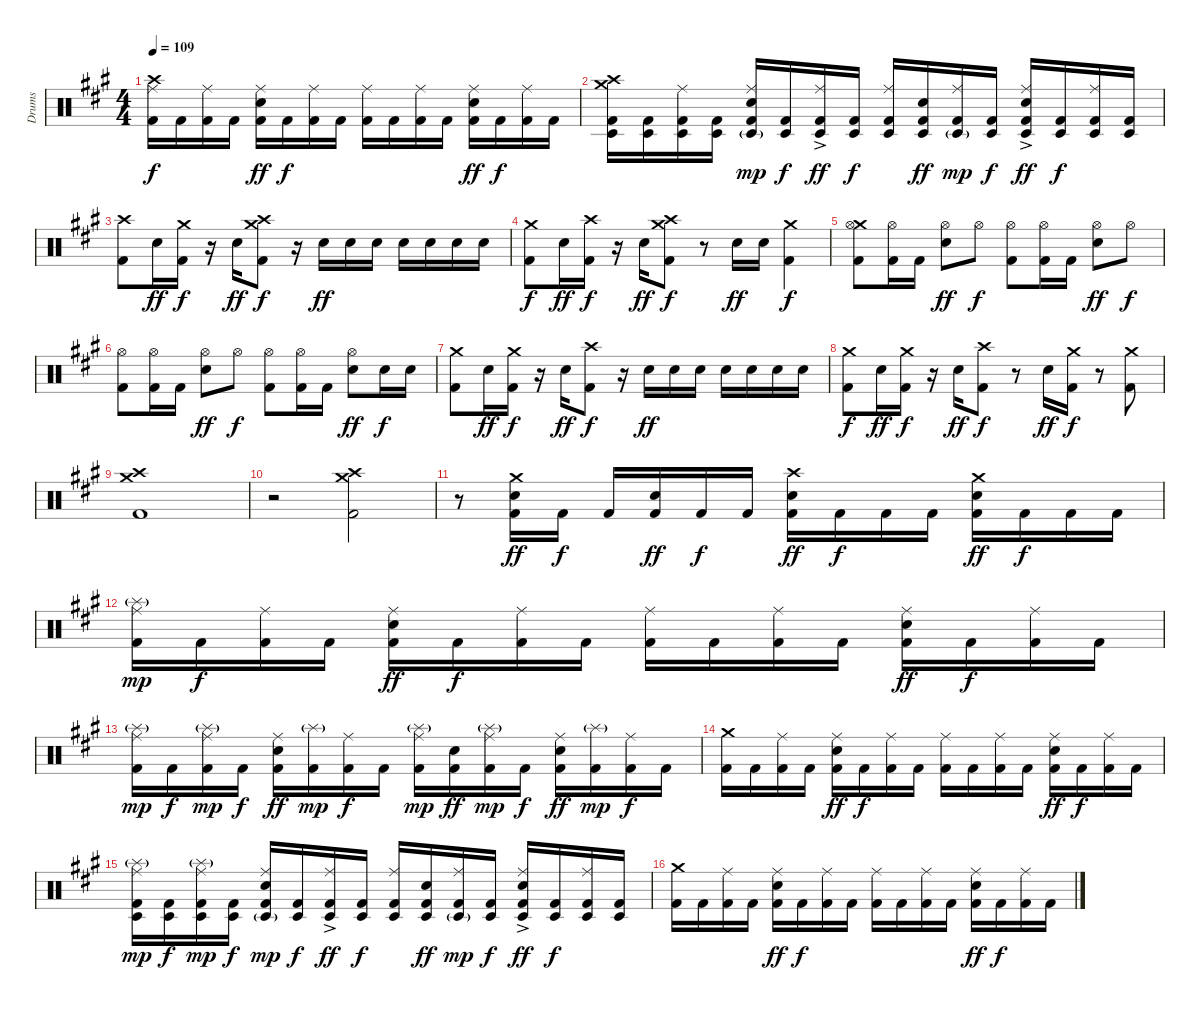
\track ("Drums" "Drums") {instrument percussion}
\staff {score}
\articulation defaults
\ts (4 4)
\tempo 109
\clef neutral
\ks f#minor
("Ride (middle)" "Crash high (hit)" "Kick (hit) 2").16{dy f} "Kick (hit) 2".16 ("Ride (middle)" "Kick (hit) 2").16 "Kick (hit) 2".16 ("Ride (middle)" "Electric Snare (hit)" "Kick (hit) 2").16{dy ff} "Kick (hit) 2".16{dy f} ("Ride (middle)" "Kick (hit) 2").16 "Kick (hit) 2".16 ("Ride (middle)" "Kick (hit) 2").16 "Kick (hit) 2".16 ("Ride (middle)" "Kick (hit) 2").16 "Kick (hit) 2".16 ("Ride (middle)" "Electric Snare (hit)" "Kick (hit) 2").16{dy ff} "Kick (hit) 2".16{dy f} ("Ride (middle)" "Kick (hit) 2").16 "Kick (hit) 2".16 |
("Crash medium (hit)" "Crash high (hit)" "Timbale low (hit)" "Kick (hit) 2").16 ("Timbale low (hit)" "Kick (hit) 2").16 ("Ride (middle)" "Timbale low (hit)" "Kick (hit) 2").16 ("Timbale low (hit)" "Kick (hit) 2").16 ("Ride (middle)" "Electric Snare (hit)" "Timbale low (hit)"{g} "Kick (hit) 2").16{dy mp} ("Timbale low (hit)" "Kick (hit) 2").16{dy f} ("Ride (middle)" "Timbale low (hit)"{ac} "Kick (hit) 2").16{dy ff} ("Timbale low (hit)" "Kick (hit) 2").16{dy f} ("Ride (middle)" "Timbale low (hit)" "Kick (hit) 2").16 ("Electric Snare (hit)" "Timbale low (hit)" "Kick (hit) 2").16{dy ff} ("Ride (middle)" "Timbale low (hit)"{g} "Kick (hit) 2").16{dy mp} ("Timbale low (hit)" "Kick (hit) 2").16{dy f} ("Ride (middle)" "Electric Snare (hit)" "Timbale low (hit)"{ac} "Kick (hit) 2").16{dy ff} ("Timbale low (hit)" "Kick (hit) 2").16{dy f} ("Ride (middle)" "Timbale low (hit)" "Kick (hit) 2").16 ("Timbale low (hit)" "Kick (hit) 2").16 |
("Crash high (hit)" "Kick (hit) 2").8 "Electric Snare (hit)".16{dy ff} ("Crash medium (hit)" "Kick (hit) 2").16{dy f} r.16 "Electric Snare (hit)".16{dy ff} ("Crash medium (hit)" "Crash high (hit)" "Kick (hit) 2").8{dy f} r.16 "Electric Snare (hit)".16{dy ff} "Electric Snare (hit)".16 "Electric Snare (hit)".16 "Electric Snare (hit)".16 "Electric Snare (hit)".16 "Electric Snare (hit)".16 "Electric Snare (hit)".16 |
("Crash medium (hit)" "Kick (hit) 2").8{dy f} "Electric Snare (hit)".16{dy ff} ("Crash high (hit)" "Kick (hit) 2").16{dy f} r.16 "Electric Snare (hit)".16{dy ff} ("Crash medium (hit)" "Crash high (hit)" "Kick (hit) 2").8{dy f} r.8 "Electric Snare (hit)".16{dy ff} "Electric Snare (hit)".16 ("Crash medium (hit)" "Kick (hit) 2").4{dy f} |
("Crash medium (hit)" "Hi-Hat (open)" "Kick (hit) 2").8 ("Hi-Hat (open)" "Kick (hit) 2").16 "Kick (hit) 2".16 ("Hi-Hat (open)" "Electric Snare (hit)").8{dy ff} "Hi-Hat (open)".8{dy f} ("Hi-Hat (open)" "Kick (hit) 2").8 ("Hi-Hat (open)" "Kick (hit) 2").16 "Kick (hit) 2".16 ("Hi-Hat (open)" "Electric Snare (hit)").8{dy ff} "Hi-Hat (open)".8{dy f} |
("Hi-Hat (open)" "Kick (hit) 2").8 ("Hi-Hat (open)" "Kick (hit) 2").16 "Kick (hit) 2".16 ("Hi-Hat (open)" "Electric Snare (hit)").8{dy ff} "Hi-Hat (open)".8{dy f} ("Hi-Hat (open)" "Kick (hit) 2").8 ("Hi-Hat (open)" "Kick (hit) 2").16 "Kick (hit) 2".16 ("Hi-Hat (open)" "Electric Snare (hit)").8{dy ff} "Electric Snare (hit)".16{dy f} "Electric Snare (hit)".16 |
("Crash medium (hit)" "Kick (hit) 2").8 "Electric Snare (hit)".16{dy ff} ("Crash medium (hit)" "Kick (hit) 2").16{dy f} r.16 "Electric Snare (hit)".16{dy ff} ("Crash high (hit)" "Kick (hit) 2").8{dy f} r.16 "Electric Snare (hit)".16{dy ff} "Electric Snare (hit)".16 "Electric Snare (hit)".16 "Electric Snare (hit)".16 "Electric Snare (hit)".16 "Electric Snare (hit)".16 "Electric Snare (hit)".16 |
("Crash medium (hit)" "Kick (hit) 2").8{dy f} "Electric Snare (hit)".16{dy ff} ("Crash medium (hit)" "Kick (hit) 2").16{dy f} r.16 "Electric Snare (hit)".16{dy ff} ("Crash high (hit)" "Kick (hit) 2").8{dy f} r.8 "Electric Snare (hit)".16{dy ff} ("Crash medium (hit)" "Kick (hit) 2").16{dy f} r.8 ("Crash medium (hit)" "Kick (hit) 2").8 |
("Crash medium (hit)" "Crash high (hit)" "Kick (hit) 2").1 |
r.2 ("Crash medium (hit)" "Crash high (hit)" "Kick (hit) 2").2 |
r.8 ("Crash medium (hit)" "Electric Snare (hit)" "Kick (hit) 2").16{dy ff} "Kick (hit) 2".16{dy f} "Kick (hit) 2".16 ("Electric Snare (hit)" "Kick (hit) 2").16{dy ff} "Kick (hit) 2".16{dy f} "Kick (hit) 2".16 ("Crash high (hit)" "Electric Snare (hit)" "Kick (hit) 2").16{dy ff} "Kick (hit) 2".16{dy f} "Kick (hit) 2".16 "Kick (hit) 2".16 ("Crash medium (hit)" "Electric Snare (hit)" "Kick (hit) 2").16{dy ff} "Kick (hit) 2".16{dy f} "Kick (hit) 2".16 "Kick (hit) 2".16 |
("Ride (middle)" "Splash (hit)"{g} "Kick (hit) 2").16{dy mp} "Kick (hit) 2".16{dy f} ("Ride (middle)" "Kick (hit) 2").16 "Kick (hit) 2".16 ("Ride (middle)" "Electric Snare (hit)" "Kick (hit) 2").16{dy ff} "Kick (hit) 2".16{dy f} ("Ride (middle)" "Kick (hit) 2").16 "Kick (hit) 2".16 ("Ride (middle)" "Kick (hit) 2").16 "Kick (hit) 2".16 ("Ride (middle)" "Kick (hit) 2").16 "Kick (hit) 2".16 ("Ride (middle)" "Electric Snare (hit)" "Kick (hit) 2").16{dy ff} "Kick (hit) 2".16{dy f} ("Ride (middle)" "Kick (hit) 2").16 "Kick (hit) 2".16 |
("Ride (middle)" "Splash (hit)"{g} "Kick (hit) 2").16{dy mp} "Kick (hit) 2".16{dy f} ("Ride (middle)" "Splash (hit)"{g} "Kick (hit) 2").16{dy mp} "Kick (hit) 2".16{dy f} ("Ride (middle)" "Electric Snare (hit)" "Kick (hit) 2").16{dy ff} ("Splash (hit)"{g} "Kick (hit) 2").16{dy mp} ("Ride (middle)" "Kick (hit) 2").16{dy f} "Kick (hit) 2".16 ("Ride (middle)" "Splash (hit)"{g} "Kick (hit) 2").16{dy mp} ("Electric Snare (hit)" "Kick (hit) 2").16{dy ff} ("Ride (middle)" "Splash (hit)"{g} "Kick (hit) 2").16{dy mp} "Kick (hit) 2".16{dy f} ("Ride (middle)" "Electric Snare (hit)" "Kick (hit) 2").16{dy ff} ("Splash (hit)"{g} "Kick (hit) 2").16{dy mp} ("Ride (middle)" "Kick (hit) 2").16{dy f} "Kick (hit) 2".16 |
("Crash medium (hit)" "Kick (hit) 2").16 "Kick (hit) 2".16 ("Ride (middle)" "Kick (hit) 2").16 "Kick (hit) 2".16 ("Ride (middle)" "Electric Snare (hit)" "Kick (hit) 2").16{dy ff} "Kick (hit) 2".16{dy f} ("Ride (middle)" "Kick (hit) 2").16 "Kick (hit) 2".16 ("Ride (middle)" "Kick (hit) 2").16 "Kick (hit) 2".16 ("Ride (middle)" "Kick (hit) 2").16 "Kick (hit) 2".16 ("Ride (middle)" "Electric Snare (hit)" "Kick (hit) 2").16{dy ff} "Kick (hit) 2".16{dy f} ("Ride (middle)" "Kick (hit) 2").16 "Kick (hit) 2".16 |
("Ride (middle)" "Splash (hit)"{g} "Timbale low (hit)" "Kick (hit) 2").16{dy mp} ("Timbale low (hit)" "Kick (hit) 2").16{dy f} ("Ride (middle)" "Splash (hit)"{g} "Timbale low (hit)" "Kick (hit) 2").16{dy mp} ("Timbale low (hit)" "Kick (hit) 2").16{dy f} ("Ride (middle)" "Electric Snare (hit)" "Timbale low (hit)"{g} "Kick (hit) 2").16{dy mp} ("Timbale low (hit)" "Kick (hit) 2").16{dy f} ("Ride (middle)" "Timbale low (hit)"{ac} "Kick (hit) 2").16{dy ff} ("Timbale low (hit)" "Kick (hit) 2").16{dy f} ("Ride (middle)" "Timbale low (hit)" "Kick (hit) 2").16 ("Electric Snare (hit)" "Timbale low (hit)" "Kick (hit) 2").16{dy ff} ("Ride (middle)" "Timbale low (hit)"{g} "Kick (hit) 2").16{dy mp} ("Timbale low (hit)" "Kick (hit) 2").16{dy f} ("Ride (middle)" "Electric Snare (hit)" "Timbale low (hit)"{ac} "Kick (hit) 2").16{dy ff} ("Timbale low (hit)" "Kick (hit) 2").16{dy f} ("Ride (middle)" "Timbale low (hit)" "Kick (hit) 2").16 ("Timbale low (hit)" "Kick (hit) 2").16 |
("Crash medium (hit)" "Kick (hit) 2").16 "Kick (hit) 2".16 ("Ride (middle)" "Kick (hit) 2").16 "Kick (hit) 2".16 ("Ride (middle)" "Electric Snare (hit)" "Kick (hit) 2").16{dy ff} "Kick (hit) 2".16{dy f} ("Ride (middle)" "Kick (hit) 2").16 "Kick (hit) 2".16 ("Ride (middle)" "Kick (hit) 2").16 "Kick (hit) 2".16 ("Ride (middle)" "Kick (hit) 2").16 "Kick (hit) 2".16 ("Ride (middle)" "Electric Snare (hit)" "Kick (hit) 2").16{dy ff} "Kick (hit) 2".16{dy f} ("Ride (middle)" "Kick (hit) 2").16 "Kick (hit) 2".16
